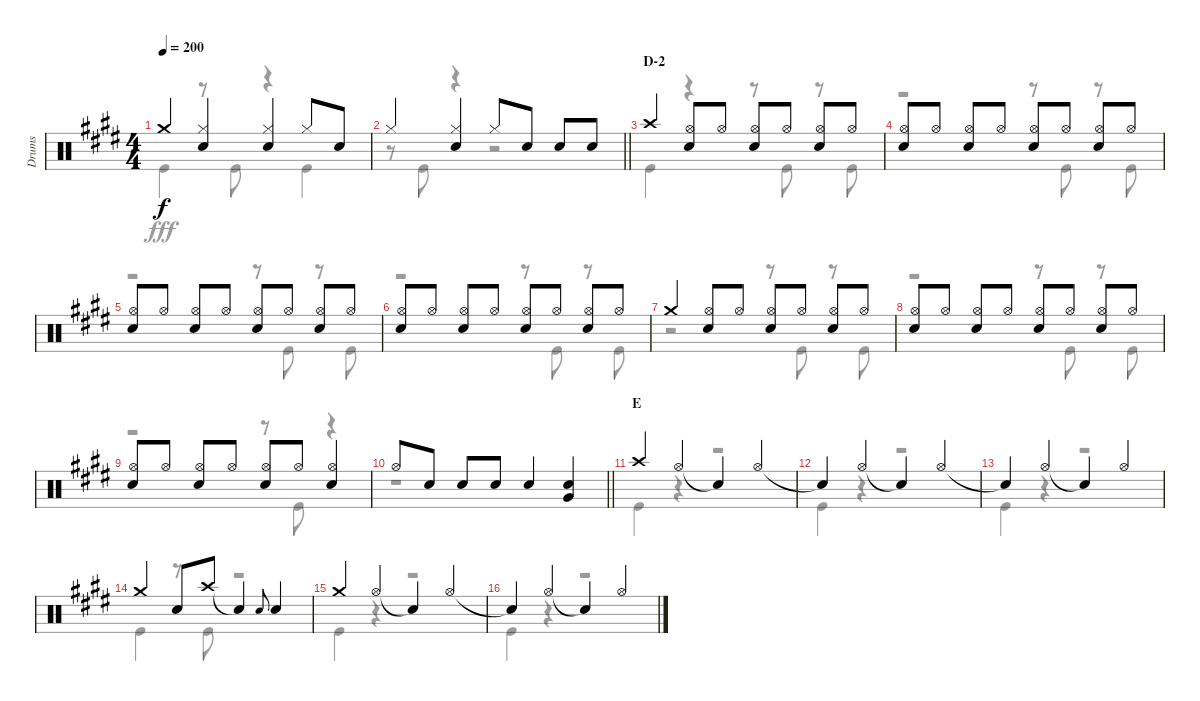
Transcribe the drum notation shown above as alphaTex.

\track ("Drums" "Drums") {instrument percussion}
\staff {score}
\articulation defaults
\voice
\ts (4 4)
\tempo 200
\clef neutral
\ks e "Crash medium (hit)".4{dy f}
("Hi-Hat (closed)" "Snare (hit) 2").4 ("Hi-Hat (closed)" "Snare (hit) 2").4 "Hi-Hat (closed)".8 "Snare (hit) 2".8 |
\barLineRight lightlight "Hi-Hat (closed)".4
("Hi-Hat (closed)" "Snare (hit) 2").4 "Hi-Hat (closed)".8 "Snare (hit) 2".8 "Snare (hit) 2".8 "Snare (hit) 2".8 |
\section ("" "D-2")
"Crash high (hit)".4 ("Hi-Hat (open)" "Snare (hit) 2").8 "Hi-Hat (open)".8 ("Hi-Hat (open)" "Snare (hit) 2").8 "Hi-Hat (open)".8 ("Hi-Hat (open)" "Snare (hit) 2").8 "Hi-Hat (open)".8 |
("Hi-Hat (open)" "Snare (hit) 2").8 "Hi-Hat (open)".8 ("Hi-Hat (open)" "Snare (hit) 2").8 "Hi-Hat (open)".8 ("Hi-Hat (open)" "Snare (hit) 2").8 "Hi-Hat (open)".8 ("Hi-Hat (open)" "Snare (hit) 2").8 "Hi-Hat (open)".8 |
("Hi-Hat (open)" "Snare (hit) 2").8 "Hi-Hat (open)".8 ("Hi-Hat (open)" "Snare (hit) 2").8 "Hi-Hat (open)".8 ("Hi-Hat (open)" "Snare (hit) 2").8 "Hi-Hat (open)".8 ("Hi-Hat (open)" "Snare (hit) 2").8 "Hi-Hat (open)".8 |
("Hi-Hat (open)" "Snare (hit) 2").8 "Hi-Hat (open)".8 ("Hi-Hat (open)" "Snare (hit) 2").8 "Hi-Hat (open)".8 ("Hi-Hat (open)" "Snare (hit) 2").8 "Hi-Hat (open)".8 ("Hi-Hat (open)" "Snare (hit) 2").8 "Hi-Hat (open)".8 |
"Crash medium (hit)".4 ("Hi-Hat (open)" "Snare (hit) 2").8 "Hi-Hat (open)".8 ("Hi-Hat (open)" "Snare (hit) 2").8 "Hi-Hat (open)".8 ("Hi-Hat (open)" "Snare (hit) 2").8 "Hi-Hat (open)".8 |
("Hi-Hat (open)" "Snare (hit) 2").8 "Hi-Hat (open)".8 ("Hi-Hat (open)" "Snare (hit) 2").8 "Hi-Hat (open)".8 ("Hi-Hat (open)" "Snare (hit) 2").8 "Hi-Hat (open)".8 ("Hi-Hat (open)" "Snare (hit) 2").8 "Hi-Hat (open)".8 |
("Hi-Hat (open)" "Snare (hit) 2").8 "Hi-Hat (open)".8 ("Hi-Hat (open)" "Snare (hit) 2").8 "Hi-Hat (open)".8 ("Hi-Hat (open)" "Snare (hit) 2").8 "Hi-Hat (open)".8 ("Hi-Hat (open)" "Snare (hit) 2").4 |
\barLineRight lightlight "Hi-Hat (open)".8 "Snare (hit) 2".8 "Snare (hit) 2".8 "Snare (hit) 2".8 "Snare (hit) 2".4
("Snare (hit) 2" "Very Low Tom (hit)").4 |
\section ("" "E")
"Crash high (hit)".4 "Hi-Hat (open)".4 "Snare (hit)"{t}.4 "Hi-Hat (open)".4 |
"Snare (hit)"{t}.4 "Hi-Hat (open)".4 "Snare (hit)"{t}.4 "Hi-Hat (open)".4 |
"Snare (hit)"{t}.4 "Hi-Hat (open)".4 "Snare (hit)"{t}.4 "Hi-Hat (open)".4 |
"Crash medium (hit)".4 "Snare (hit) 2".8 "Crash high (hit)".8 "Snare (hit)"{t}.4 "Snare (hit) 2".8{gr onbeat} "Snare (hit) 2".4 |
"Crash medium (hit)".4 "Hi-Hat (open)".4 "Snare (hit)"{t}.4 "Hi-Hat (open)".4 |
"Snare (hit)"{t}.4 "Hi-Hat (open)".4 "Snare (hit)"{t}.4 "Hi-Hat (open)".4
\voice
\clef neutral
\ottava regular
\simile none
\ks e "Kick (hit)".4{dy fff}
r.8 "Kick (hit)".8 r.4 "Kick (hit)".4 |
\barLineRight lightlight
r.8 "Kick (hit)".8 r.4 r.2 |
"Kick (hit)".4 r.4 r.8 "Kick (hit)".8 r.8 "Kick (hit)".8 |
r.2 r.8 "Kick (hit)".8 r.8 "Kick (hit)".8 |
r.2 r.8 "Kick (hit)".8 r.8 "Kick (hit)".8 |
r.2 r.8 "Kick (hit)".8 r.8 "Kick (hit)".8 |
r.2 r.8 "Kick (hit)".8 r.8 "Kick (hit)".8 |
r.2 r.8 "Kick (hit)".8 r.8 "Kick (hit)".8 |
r.2 r.8 "Kick (hit)".8 r.4 |
\barLineRight lightlight
r.1 |
"Kick (hit)".4 r.4 r.2 |
"Kick (hit)".4 r.4 r.2 |
"Kick (hit)".4 r.4 r.2 |
"Kick (hit)".4 r.8 "Kick (hit)".8 r.2 |
"Kick (hit)".4 r.4 r.2 |
"Kick (hit)".4 r.4 r.2
